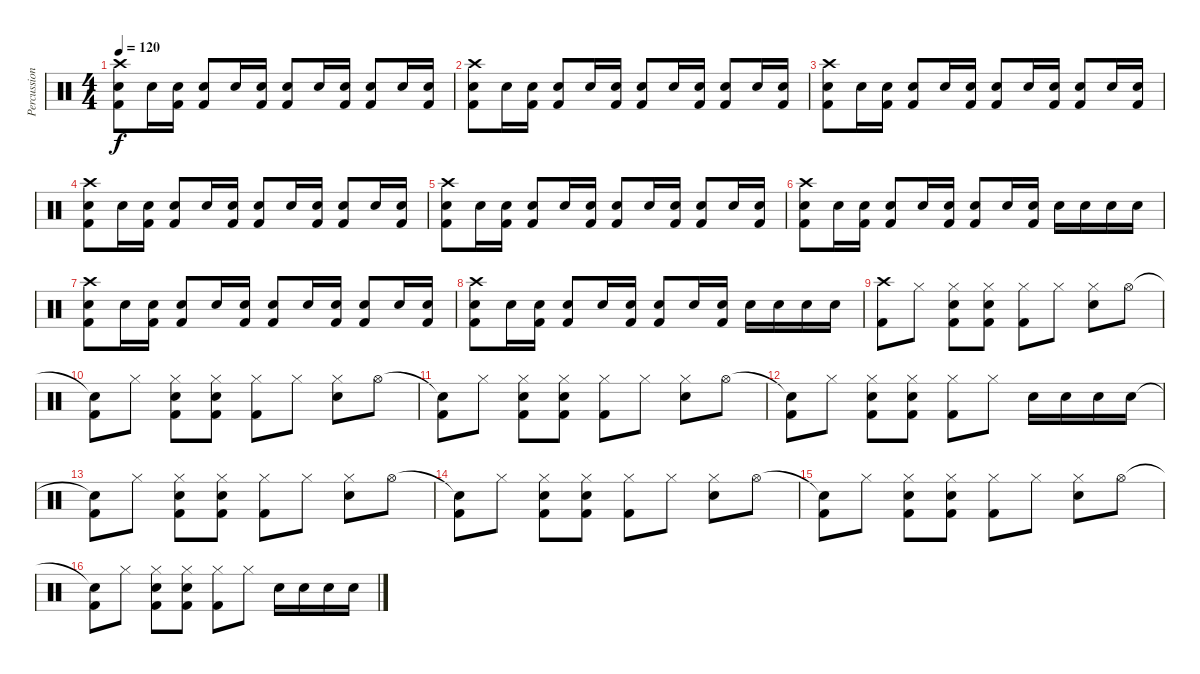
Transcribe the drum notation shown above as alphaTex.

\track ("Percussion" "Percussion") {instrument percussion}
\staff {score}
\articulation defaults
\ts (4 4)
\tempo 120
\clef neutral
\ks c
("Crash high (hit)" "Kick (hit) 2" "Electric Snare (hit)").8{dy f} "Electric Snare (hit)".16 ("Kick (hit) 2" "Electric Snare (hit)").16 ("Kick (hit) 2" "Electric Snare (hit)").8 "Electric Snare (hit)".16 ("Kick (hit) 2" "Electric Snare (hit)").16 ("Kick (hit) 2" "Electric Snare (hit)").8 "Electric Snare (hit)".16 ("Kick (hit) 2" "Electric Snare (hit)").16 ("Kick (hit) 2" "Electric Snare (hit)").8 "Electric Snare (hit)".16 ("Kick (hit) 2" "Electric Snare (hit)").16 |
("Crash high (hit)" "Kick (hit) 2" "Electric Snare (hit)").8 "Electric Snare (hit)".16 ("Kick (hit) 2" "Electric Snare (hit)").16 ("Kick (hit) 2" "Electric Snare (hit)").8 "Electric Snare (hit)".16 ("Kick (hit) 2" "Electric Snare (hit)").16 ("Kick (hit) 2" "Electric Snare (hit)").8 "Electric Snare (hit)".16 ("Kick (hit) 2" "Electric Snare (hit)").16 ("Kick (hit) 2" "Electric Snare (hit)").8 "Electric Snare (hit)".16 ("Kick (hit) 2" "Electric Snare (hit)").16 |
("Crash high (hit)" "Kick (hit) 2" "Electric Snare (hit)").8 "Electric Snare (hit)".16 ("Kick (hit) 2" "Electric Snare (hit)").16 ("Kick (hit) 2" "Electric Snare (hit)").8 "Electric Snare (hit)".16 ("Kick (hit) 2" "Electric Snare (hit)").16 ("Kick (hit) 2" "Electric Snare (hit)").8 "Electric Snare (hit)".16 ("Kick (hit) 2" "Electric Snare (hit)").16 ("Kick (hit) 2" "Electric Snare (hit)").8 "Electric Snare (hit)".16 ("Kick (hit) 2" "Electric Snare (hit)").16 |
("Crash high (hit)" "Kick (hit) 2" "Electric Snare (hit)").8 "Electric Snare (hit)".16 ("Kick (hit) 2" "Electric Snare (hit)").16 ("Kick (hit) 2" "Electric Snare (hit)").8 "Electric Snare (hit)".16 ("Kick (hit) 2" "Electric Snare (hit)").16 ("Kick (hit) 2" "Electric Snare (hit)").8 "Electric Snare (hit)".16 ("Kick (hit) 2" "Electric Snare (hit)").16 ("Kick (hit) 2" "Electric Snare (hit)").8 "Electric Snare (hit)".16 ("Kick (hit) 2" "Electric Snare (hit)").16 |
("Crash high (hit)" "Kick (hit) 2" "Electric Snare (hit)").8 "Electric Snare (hit)".16 ("Kick (hit) 2" "Electric Snare (hit)").16 ("Kick (hit) 2" "Electric Snare (hit)").8 "Electric Snare (hit)".16 ("Kick (hit) 2" "Electric Snare (hit)").16 ("Kick (hit) 2" "Electric Snare (hit)").8 "Electric Snare (hit)".16 ("Kick (hit) 2" "Electric Snare (hit)").16 ("Kick (hit) 2" "Electric Snare (hit)").8 "Electric Snare (hit)".16 ("Kick (hit) 2" "Electric Snare (hit)").16 |
("Crash high (hit)" "Kick (hit) 2" "Electric Snare (hit)").8 "Electric Snare (hit)".16 ("Kick (hit) 2" "Electric Snare (hit)").16 ("Kick (hit) 2" "Electric Snare (hit)").8 "Electric Snare (hit)".16 ("Kick (hit) 2" "Electric Snare (hit)").16 ("Kick (hit) 2" "Electric Snare (hit)").8 "Electric Snare (hit)".16 ("Kick (hit) 2" "Electric Snare (hit)").16 "Electric Snare (hit)".16 "Electric Snare (hit)".16 "Electric Snare (hit)".16 "Electric Snare (hit)".16 |
("Crash high (hit)" "Kick (hit) 2" "Electric Snare (hit)").8 "Electric Snare (hit)".16 ("Kick (hit) 2" "Electric Snare (hit)").16 ("Kick (hit) 2" "Electric Snare (hit)").8 "Electric Snare (hit)".16 ("Kick (hit) 2" "Electric Snare (hit)").16 ("Kick (hit) 2" "Electric Snare (hit)").8 "Electric Snare (hit)".16 ("Kick (hit) 2" "Electric Snare (hit)").16 ("Kick (hit) 2" "Electric Snare (hit)").8 "Electric Snare (hit)".16 ("Kick (hit) 2" "Electric Snare (hit)").16 |
("Crash high (hit)" "Kick (hit) 2" "Electric Snare (hit)").8 "Electric Snare (hit)".16 ("Kick (hit) 2" "Electric Snare (hit)").16 ("Kick (hit) 2" "Electric Snare (hit)").8 "Electric Snare (hit)".16 ("Kick (hit) 2" "Electric Snare (hit)").16 ("Kick (hit) 2" "Electric Snare (hit)").8 "Electric Snare (hit)".16 ("Kick (hit) 2" "Electric Snare (hit)").16 "Electric Snare (hit)".16 "Electric Snare (hit)".16 "Electric Snare (hit)".16 "Electric Snare (hit)".16 |
("Crash high (hit)" "Kick (hit) 2").8 "Hi-Hat (closed)".8 ("Hi-Hat (closed)" "Kick (hit) 2" "Electric Snare (hit)").8 ("Hi-Hat (closed)" "Kick (hit) 2" "Electric Snare (hit)").8 ("Hi-Hat (closed)" "Kick (hit) 2").8 "Hi-Hat (closed)".8 ("Hi-Hat (closed)" "Electric Snare (hit)").8 "Hi-Hat (open)".8 |
("Snare (hit)"{t} "Kick (hit) 2").8 "Hi-Hat (closed)".8 ("Hi-Hat (closed)" "Kick (hit) 2" "Electric Snare (hit)").8 ("Hi-Hat (closed)" "Kick (hit) 2" "Electric Snare (hit)").8 ("Hi-Hat (closed)" "Kick (hit) 2").8 "Hi-Hat (closed)".8 ("Hi-Hat (closed)" "Electric Snare (hit)").8 "Hi-Hat (open)".8 |
("Snare (hit)"{t} "Kick (hit) 2").8 "Hi-Hat (closed)".8 ("Hi-Hat (closed)" "Kick (hit) 2" "Electric Snare (hit)").8 ("Hi-Hat (closed)" "Kick (hit) 2" "Electric Snare (hit)").8 ("Hi-Hat (closed)" "Kick (hit) 2").8 "Hi-Hat (closed)".8 ("Hi-Hat (closed)" "Electric Snare (hit)").8 "Hi-Hat (open)".8 |
("Snare (hit)"{t} "Kick (hit) 2").8 "Hi-Hat (closed)".8 ("Hi-Hat (closed)" "Kick (hit) 2" "Electric Snare (hit)").8 ("Hi-Hat (closed)" "Kick (hit) 2" "Electric Snare (hit)").8 ("Hi-Hat (closed)" "Kick (hit) 2").8 "Hi-Hat (closed)".8 "Electric Snare (hit)".16 "Electric Snare (hit)".16 "Electric Snare (hit)".16 "Electric Snare (hit)".16 |
("Snare (hit)"{t} "Kick (hit) 2").8 "Hi-Hat (closed)".8 ("Hi-Hat (closed)" "Kick (hit) 2" "Electric Snare (hit)").8 ("Hi-Hat (closed)" "Kick (hit) 2" "Electric Snare (hit)").8 ("Hi-Hat (closed)" "Kick (hit) 2").8 "Hi-Hat (closed)".8 ("Hi-Hat (closed)" "Electric Snare (hit)").8 "Hi-Hat (open)".8 |
("Snare (hit)"{t} "Kick (hit) 2").8 "Hi-Hat (closed)".8 ("Hi-Hat (closed)" "Kick (hit) 2" "Electric Snare (hit)").8 ("Hi-Hat (closed)" "Kick (hit) 2" "Electric Snare (hit)").8 ("Hi-Hat (closed)" "Kick (hit) 2").8 "Hi-Hat (closed)".8 ("Hi-Hat (closed)" "Electric Snare (hit)").8 "Hi-Hat (open)".8 |
("Snare (hit)"{t} "Kick (hit) 2").8 "Hi-Hat (closed)".8 ("Hi-Hat (closed)" "Kick (hit) 2" "Electric Snare (hit)").8 ("Hi-Hat (closed)" "Kick (hit) 2" "Electric Snare (hit)").8 ("Hi-Hat (closed)" "Kick (hit) 2").8 "Hi-Hat (closed)".8 ("Hi-Hat (closed)" "Electric Snare (hit)").8 "Hi-Hat (open)".8 |
("Snare (hit)"{t} "Kick (hit) 2").8 "Hi-Hat (closed)".8 ("Hi-Hat (closed)" "Kick (hit) 2" "Electric Snare (hit)").8 ("Hi-Hat (closed)" "Kick (hit) 2" "Electric Snare (hit)").8 ("Hi-Hat (closed)" "Kick (hit) 2").8 "Hi-Hat (closed)".8 "Electric Snare (hit)".16 "Electric Snare (hit)".16 "Electric Snare (hit)".16 "Electric Snare (hit)".16
